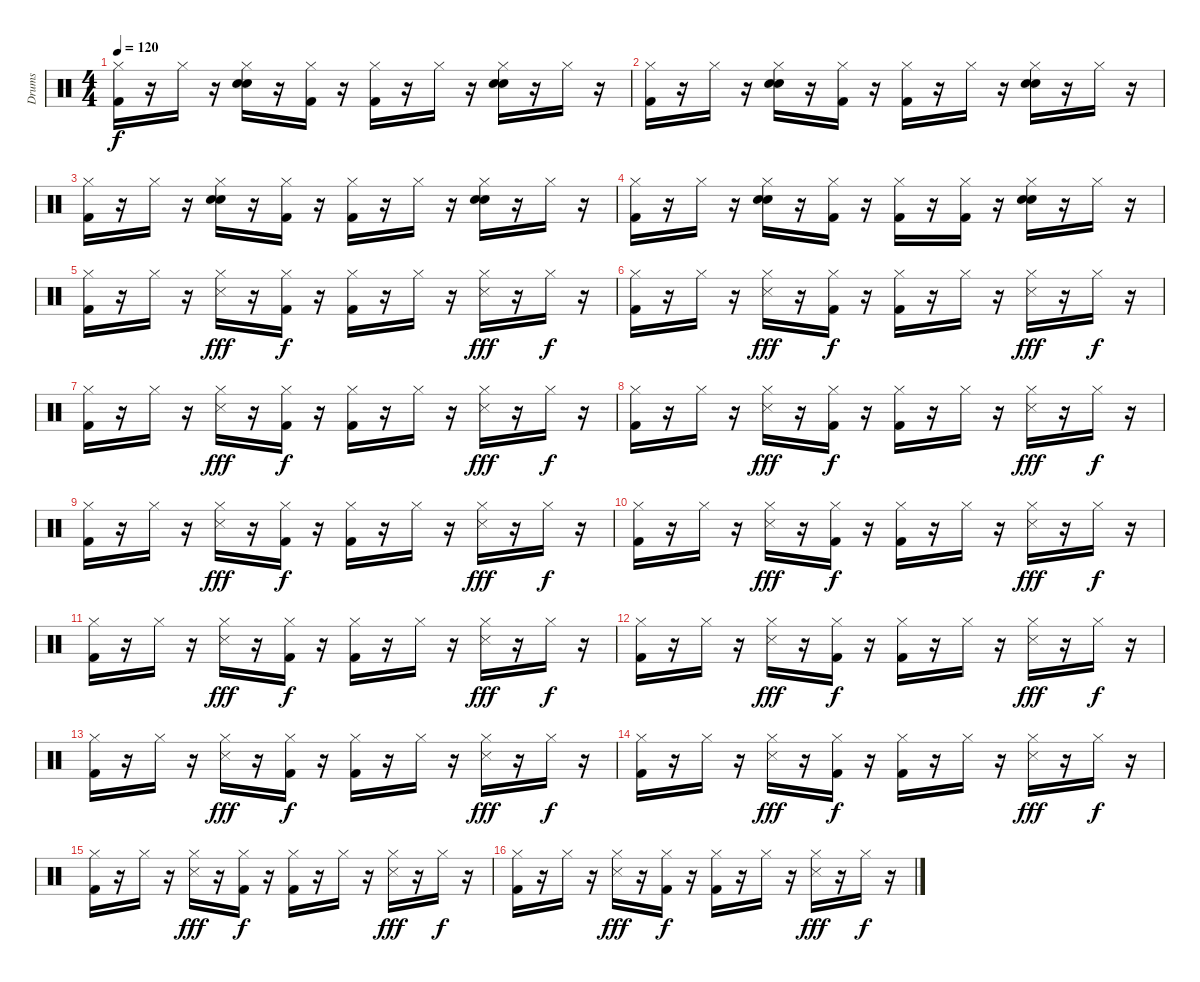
\track ("Drums" "Drums") {instrument percussion}
\staff {score}
\articulation defaults
\ts (4 4)
\tempo 120
\clef neutral
\ks c
("Hi-Hat (closed)" "Kick (hit) 2").16{dy f} r.16 "Hi-Hat (closed)".16 r.16 ("Hi-Hat (closed)" "Electric Snare (hit)" "Snare (hit) 2").16 r.16 ("Hi-Hat (closed)" "Kick (hit) 2").16 r.16 ("Hi-Hat (closed)" "Kick (hit) 2").16 r.16 "Hi-Hat (closed)".16 r.16 ("Hi-Hat (closed)" "Electric Snare (hit)" "Snare (hit) 2").16 r.16 "Hi-Hat (closed)".16 r.16 |
("Hi-Hat (closed)" "Kick (hit) 2").16 r.16 "Hi-Hat (closed)".16 r.16 ("Hi-Hat (closed)" "Electric Snare (hit)" "Snare (hit) 2").16 r.16 ("Hi-Hat (closed)" "Kick (hit) 2").16 r.16 ("Hi-Hat (closed)" "Kick (hit) 2").16 r.16 "Hi-Hat (closed)".16 r.16 ("Hi-Hat (closed)" "Electric Snare (hit)" "Snare (hit) 2").16 r.16 "Hi-Hat (closed)".16 r.16 |
("Hi-Hat (closed)" "Kick (hit) 2").16 r.16 "Hi-Hat (closed)".16 r.16 ("Hi-Hat (closed)" "Electric Snare (hit)" "Snare (hit) 2").16 r.16 ("Hi-Hat (closed)" "Kick (hit) 2").16 r.16 ("Hi-Hat (closed)" "Kick (hit) 2").16 r.16 "Hi-Hat (closed)".16 r.16 ("Hi-Hat (closed)" "Electric Snare (hit)" "Snare (hit) 2").16 r.16 "Hi-Hat (closed)".16 r.16 |
("Hi-Hat (closed)" "Kick (hit) 2").16 r.16 "Hi-Hat (closed)".16 r.16 ("Hi-Hat (closed)" "Electric Snare (hit)" "Snare (hit) 2").16 r.16 ("Hi-Hat (closed)" "Kick (hit) 2").16 r.16 ("Hi-Hat (closed)" "Kick (hit) 2").16 r.16 ("Hi-Hat (closed)" "Kick (hit) 2").16 r.16 ("Hi-Hat (closed)" "Electric Snare (hit)" "Snare (hit) 2").16 r.16 "Hi-Hat (closed)".16 r.16 |
("Hi-Hat (closed)" "Kick (hit) 2").16 r.16 "Hi-Hat (closed)".16 r.16 ("Hi-Hat (closed)" "Snare (side stick) 3").16{dy fff} r.16 ("Hi-Hat (closed)" "Kick (hit) 2").16{dy f} r.16 ("Hi-Hat (closed)" "Kick (hit) 2").16 r.16 "Hi-Hat (closed)".16 r.16 ("Hi-Hat (closed)" "Snare (side stick) 3").16{dy fff} r.16 "Hi-Hat (closed)".16{dy f} r.16 |
("Hi-Hat (closed)" "Kick (hit) 2").16 r.16 "Hi-Hat (closed)".16 r.16 ("Hi-Hat (closed)" "Snare (side stick) 3").16{dy fff} r.16 ("Hi-Hat (closed)" "Kick (hit) 2").16{dy f} r.16 ("Hi-Hat (closed)" "Kick (hit) 2").16 r.16 "Hi-Hat (closed)".16 r.16 ("Hi-Hat (closed)" "Snare (side stick) 3").16{dy fff} r.16 "Hi-Hat (closed)".16{dy f} r.16 |
("Hi-Hat (closed)" "Kick (hit) 2").16 r.16 "Hi-Hat (closed)".16 r.16 ("Hi-Hat (closed)" "Snare (side stick) 3").16{dy fff} r.16 ("Hi-Hat (closed)" "Kick (hit) 2").16{dy f} r.16 ("Hi-Hat (closed)" "Kick (hit) 2").16 r.16 "Hi-Hat (closed)".16 r.16 ("Hi-Hat (closed)" "Snare (side stick) 3").16{dy fff} r.16 "Hi-Hat (closed)".16{dy f} r.16 |
("Hi-Hat (closed)" "Kick (hit) 2").16 r.16 "Hi-Hat (closed)".16 r.16 ("Hi-Hat (closed)" "Snare (side stick) 3").16{dy fff} r.16 ("Hi-Hat (closed)" "Kick (hit) 2").16{dy f} r.16 ("Hi-Hat (closed)" "Kick (hit) 2").16 r.16 "Hi-Hat (closed)".16 r.16 ("Hi-Hat (closed)" "Snare (side stick) 3").16{dy fff} r.16 "Hi-Hat (closed)".16{dy f} r.16 |
("Hi-Hat (closed)" "Kick (hit) 2").16 r.16 "Hi-Hat (closed)".16 r.16 ("Hi-Hat (closed)" "Snare (side stick) 3").16{dy fff} r.16 ("Hi-Hat (closed)" "Kick (hit) 2").16{dy f} r.16 ("Hi-Hat (closed)" "Kick (hit) 2").16 r.16 "Hi-Hat (closed)".16 r.16 ("Hi-Hat (closed)" "Snare (side stick) 3").16{dy fff} r.16 "Hi-Hat (closed)".16{dy f} r.16 |
("Hi-Hat (closed)" "Kick (hit) 2").16 r.16 "Hi-Hat (closed)".16 r.16 ("Hi-Hat (closed)" "Snare (side stick) 3").16{dy fff} r.16 ("Hi-Hat (closed)" "Kick (hit) 2").16{dy f} r.16 ("Hi-Hat (closed)" "Kick (hit) 2").16 r.16 "Hi-Hat (closed)".16 r.16 ("Hi-Hat (closed)" "Snare (side stick) 3").16{dy fff} r.16 "Hi-Hat (closed)".16{dy f} r.16 |
("Hi-Hat (closed)" "Kick (hit) 2").16 r.16 "Hi-Hat (closed)".16 r.16 ("Hi-Hat (closed)" "Snare (side stick) 3").16{dy fff} r.16 ("Hi-Hat (closed)" "Kick (hit) 2").16{dy f} r.16 ("Hi-Hat (closed)" "Kick (hit) 2").16 r.16 "Hi-Hat (closed)".16 r.16 ("Hi-Hat (closed)" "Snare (side stick) 3").16{dy fff} r.16 "Hi-Hat (closed)".16{dy f} r.16 |
("Hi-Hat (closed)" "Kick (hit) 2").16 r.16 "Hi-Hat (closed)".16 r.16 ("Hi-Hat (closed)" "Snare (side stick) 3").16{dy fff} r.16 ("Hi-Hat (closed)" "Kick (hit) 2").16{dy f} r.16 ("Hi-Hat (closed)" "Kick (hit) 2").16 r.16 "Hi-Hat (closed)".16 r.16 ("Hi-Hat (closed)" "Snare (side stick) 3").16{dy fff} r.16 "Hi-Hat (closed)".16{dy f} r.16 |
("Hi-Hat (closed)" "Kick (hit) 2").16 r.16 "Hi-Hat (closed)".16 r.16 ("Hi-Hat (closed)" "Snare (side stick) 3").16{dy fff} r.16 ("Hi-Hat (closed)" "Kick (hit) 2").16{dy f} r.16 ("Hi-Hat (closed)" "Kick (hit) 2").16 r.16 "Hi-Hat (closed)".16 r.16 ("Hi-Hat (closed)" "Snare (side stick) 3").16{dy fff} r.16 "Hi-Hat (closed)".16{dy f} r.16 |
("Hi-Hat (closed)" "Kick (hit) 2").16 r.16 "Hi-Hat (closed)".16 r.16 ("Hi-Hat (closed)" "Snare (side stick) 3").16{dy fff} r.16 ("Hi-Hat (closed)" "Kick (hit) 2").16{dy f} r.16 ("Hi-Hat (closed)" "Kick (hit) 2").16 r.16 "Hi-Hat (closed)".16 r.16 ("Hi-Hat (closed)" "Snare (side stick) 3").16{dy fff} r.16 "Hi-Hat (closed)".16{dy f} r.16 |
("Hi-Hat (closed)" "Kick (hit) 2").16 r.16 "Hi-Hat (closed)".16 r.16 ("Hi-Hat (closed)" "Snare (side stick) 3").16{dy fff} r.16 ("Hi-Hat (closed)" "Kick (hit) 2").16{dy f} r.16 ("Hi-Hat (closed)" "Kick (hit) 2").16 r.16 "Hi-Hat (closed)".16 r.16 ("Hi-Hat (closed)" "Snare (side stick) 3").16{dy fff} r.16 "Hi-Hat (closed)".16{dy f} r.16 |
("Hi-Hat (closed)" "Kick (hit) 2").16 r.16 "Hi-Hat (closed)".16 r.16 ("Hi-Hat (closed)" "Snare (side stick) 3").16{dy fff} r.16 ("Hi-Hat (closed)" "Kick (hit) 2").16{dy f} r.16 ("Hi-Hat (closed)" "Kick (hit) 2").16 r.16 "Hi-Hat (closed)".16 r.16 ("Hi-Hat (closed)" "Snare (side stick) 3").16{dy fff} r.16 "Hi-Hat (closed)".16{dy f} r.16
